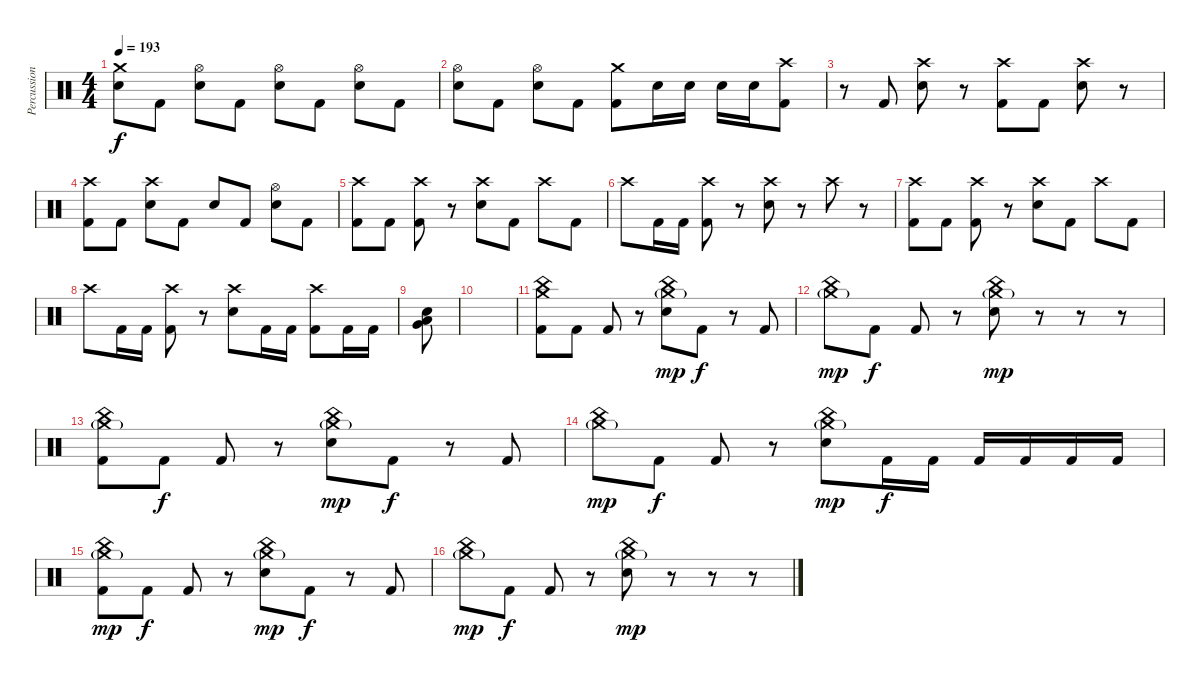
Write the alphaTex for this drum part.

\track ("Percussion" "Percussion") {instrument percussion}
\staff {score}
\articulation defaults
\ts (4 4)
\tempo 193
\clef neutral
\ks c
("Crash medium (hit)" "Snare (hit) 2").8{dy f} "Kick (hit) 2".8 ("Hi-Hat (open)" "Snare (hit) 2").8 "Kick (hit) 2".8 ("Hi-Hat (open)" "Snare (hit) 2").8 "Kick (hit) 2".8 ("Hi-Hat (open)" "Snare (hit) 2").8 "Kick (hit) 2".8 |
("Hi-Hat (open)" "Snare (hit) 2").8 "Kick (hit) 2".8 ("Hi-Hat (open)" "Snare (hit) 2").8 "Kick (hit) 2".8 ("Crash medium (hit)" "Kick (hit) 2").8 "Snare (hit) 2".16 "Snare (hit) 2".16 "Snare (hit) 2".16 "Snare (hit) 2".16 ("Crash high (hit)" "Kick (hit) 2").8 |
r.8 "Kick (hit) 2".8 ("Crash high (hit)" "Snare (hit) 2").8 r.8 ("Crash high (hit)" "Kick (hit) 2").8 "Kick (hit) 2".8 ("Crash high (hit)" "Snare (hit) 2").8 r.8 |
("Crash high (hit)" "Kick (hit) 2").8 "Kick (hit) 2".8 ("Crash high (hit)" "Snare (hit) 2").8 "Kick (hit) 2".8 "Snare (hit) 2".8 "Kick (hit) 2".8 ("Hi-Hat (open)" "Snare (hit) 2").8 "Kick (hit) 2".8 |
("Crash high (hit)" "Kick (hit) 2").8 "Kick (hit) 2".8 ("Crash high (hit)" "Kick (hit) 2").8 r.8 ("Crash high (hit)" "Snare (hit) 2").8 "Kick (hit) 2".8 "Crash high (hit)".8 "Kick (hit) 2".8 |
"Crash high (hit)".8 "Kick (hit) 2".16 "Kick (hit) 2".16 ("Crash high (hit)" "Kick (hit) 2").8 r.8 ("Crash high (hit)" "Snare (hit) 2").8 r.8 "Crash high (hit)".8 r.8 |
("Crash high (hit)" "Kick (hit) 2").8 "Kick (hit) 2".8 ("Crash high (hit)" "Kick (hit) 2").8 r.8 ("Crash high (hit)" "Snare (hit) 2").8 "Kick (hit) 2".8 "Crash high (hit)".8 "Kick (hit) 2".8 |
"Crash high (hit)".8 "Kick (hit) 2".16 "Kick (hit) 2".16 ("Crash high (hit)" "Kick (hit) 2").8 r.8 ("Crash high (hit)" "Snare (hit) 2").8 "Kick (hit) 2".16 "Kick (hit) 2".16 ("Crash high (hit)" "Kick (hit) 2").8 "Kick (hit) 2".16 "Kick (hit) 2".16 |
("Very Low Tom (hit)" "Low Floor Tom (hit)" "Snare (hit) 2").8 |
|
("Crash medium (hit)" "China (hit)" "Kick (hit) 2").8 "Kick (hit) 2".8 "Kick (hit) 2".8 r.8 ("Crash medium (hit)"{g} "China (hit)" "Snare (hit) 2").8{dy mp} "Kick (hit) 2".8{dy f} r.8 "Kick (hit) 2".8 |
("Crash medium (hit)"{g} "China (hit)").8{dy mp} "Kick (hit) 2".8{dy f} "Kick (hit) 2".8 r.8 ("Crash medium (hit)"{g} "China (hit)" "Snare (hit) 2").8{dy mp} r.8 r.8 r.8 |
("Crash medium (hit)"{g} "China (hit)" "Kick (hit) 2").8 "Kick (hit) 2".8{dy f} "Kick (hit) 2".8 r.8 ("Crash medium (hit)"{g} "China (hit)" "Snare (hit) 2").8{dy mp} "Kick (hit) 2".8{dy f} r.8 "Kick (hit) 2".8 |
("Crash medium (hit)"{g} "China (hit)").8{dy mp} "Kick (hit) 2".8{dy f} "Kick (hit) 2".8 r.8 ("Crash medium (hit)"{g} "China (hit)" "Snare (hit) 2").8{dy mp} "Kick (hit) 2".16{dy f} "Kick (hit) 2".16 "Kick (hit) 2".16 "Kick (hit) 2".16 "Kick (hit) 2".16 "Kick (hit) 2".16 |
("Crash medium (hit)"{g} "China (hit)" "Kick (hit) 2").8{dy mp} "Kick (hit) 2".8{dy f} "Kick (hit) 2".8 r.8 ("Crash medium (hit)"{g} "China (hit)" "Snare (hit) 2").8{dy mp} "Kick (hit) 2".8{dy f} r.8 "Kick (hit) 2".8 |
("Crash medium (hit)"{g} "China (hit)").8{dy mp} "Kick (hit) 2".8{dy f} "Kick (hit) 2".8 r.8 ("Crash medium (hit)"{g} "China (hit)" "Snare (hit) 2").8{dy mp} r.8 r.8 r.8
